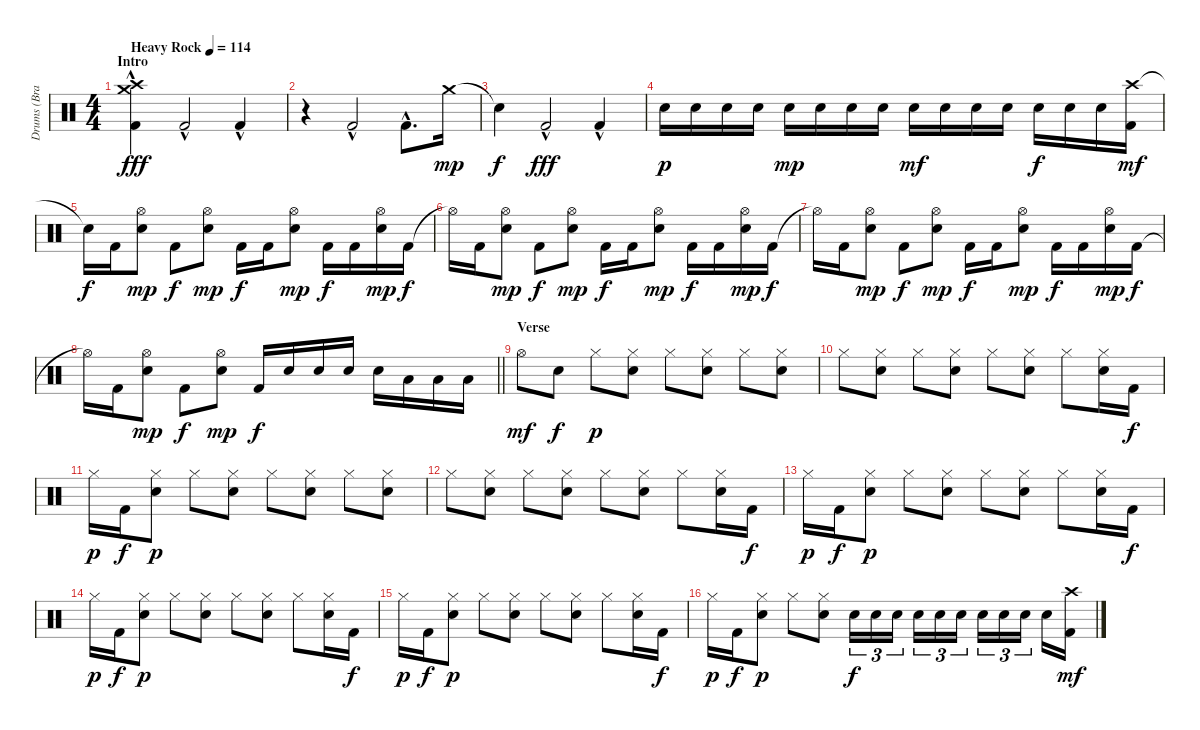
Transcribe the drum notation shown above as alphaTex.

\track ("Drums (Brandon Saller)" "Drums (Bra") {instrument percussion}
\staff {score}
\articulation defaults
\ts (4 4)
\section ("" "Intro")
\tempo (114 "Heavy Rock")
\clef neutral
\ks c
("Crash high (hit)" "Crash medium (hit)" "Kick (hit) 2"{hac}).4{dy fff} "Kick (hit) 2"{hac}.2 "Kick (hit) 2"{hac}.4 |
r.4 "Kick (hit) 2"{hac}.2 "Kick (hit) 2"{hac}.8{d} "Crash medium (hit)".16{dy mp} |
"Snare (hit)"{t}.4{dy f} "Kick (hit) 2"{hac}.2{dy fff} "Kick (hit) 2"{hac}.4 |
"Electric Snare (hit)".16{dy p} "Electric Snare (hit)".16 "Electric Snare (hit)".16 "Electric Snare (hit)".16 "Electric Snare (hit)".16{dy mp} "Electric Snare (hit)".16 "Electric Snare (hit)".16 "Electric Snare (hit)".16 "Electric Snare (hit)".16{dy mf} "Electric Snare (hit)".16 "Electric Snare (hit)".16 "Electric Snare (hit)".16 "Electric Snare (hit)".16{dy f} "Electric Snare (hit)".16 "Electric Snare (hit)".16 ("Crash high (hit)" "Kick (hit) 2").16{dy mf} |
"Snare (hit)"{t}.16{dy f} "Kick (hit) 2".16 ("Hi-Hat (open)" "Electric Snare (hit)").8{dy mp} "Kick (hit) 2".8{dy f} ("Hi-Hat (open)" "Electric Snare (hit)").8{dy mp} "Kick (hit) 2".16{dy f} "Kick (hit) 2".16 ("Hi-Hat (open)" "Electric Snare (hit)").8{dy mp} "Kick (hit) 2".16{dy f} "Kick (hit) 2".16 ("Hi-Hat (open)" "Electric Snare (hit)").16{dy mp} "Kick (hit) 2".16{dy f} |
"Hi-Hat (open)"{t}.16 "Kick (hit) 2".16 ("Hi-Hat (open)" "Electric Snare (hit)").8{dy mp} "Kick (hit) 2".8{dy f} ("Hi-Hat (open)" "Electric Snare (hit)").8{dy mp} "Kick (hit) 2".16{dy f} "Kick (hit) 2".16 ("Hi-Hat (open)" "Electric Snare (hit)").8{dy mp} "Kick (hit) 2".16{dy f} "Kick (hit) 2".16 ("Hi-Hat (open)" "Electric Snare (hit)").16{dy mp} "Kick (hit) 2".16{dy f} |
"Hi-Hat (open)"{t}.16 "Kick (hit) 2".16 ("Hi-Hat (open)" "Electric Snare (hit)").8{dy mp} "Kick (hit) 2".8{dy f} ("Hi-Hat (open)" "Electric Snare (hit)").8{dy mp} "Kick (hit) 2".16{dy f} "Kick (hit) 2".16 ("Hi-Hat (open)" "Electric Snare (hit)").8{dy mp} "Kick (hit) 2".16{dy f} "Kick (hit) 2".16 ("Hi-Hat (open)" "Electric Snare (hit)").16{dy mp} "Kick (hit) 2".16{dy f} |
\barLineRight lightlight "Hi-Hat (open)"{t}.16 "Kick (hit) 2".16
("Hi-Hat (open)" "Electric Snare (hit)").8{dy mp} "Kick (hit) 2".8{dy f} ("Hi-Hat (open)" "Electric Snare (hit)").8{dy mp} "Kick (hit) 2".16{dy f} "Electric Snare (hit)".16 "Electric Snare (hit)".16 "Electric Snare (hit)".16 "Electric Snare (hit)".16 "Low Tom (hit)".16 "Low Tom (hit)".16 "Low Tom (hit)".16 |
\section ("" "Verse")
"Hi-Hat (open)".8{dy mf} "Electric Snare (hit)".8{dy f} "Hi-Hat (closed)".8{dy p} ("Hi-Hat (closed)" "Electric Snare (hit)").8 "Hi-Hat (closed)".8 ("Hi-Hat (closed)" "Electric Snare (hit)").8 "Hi-Hat (closed)".8 ("Hi-Hat (closed)" "Electric Snare (hit)").8 |
"Hi-Hat (closed)".8 ("Hi-Hat (closed)" "Electric Snare (hit)").8 "Hi-Hat (closed)".8 ("Hi-Hat (closed)" "Electric Snare (hit)").8 "Hi-Hat (closed)".8 ("Hi-Hat (closed)" "Electric Snare (hit)").8 "Hi-Hat (closed)".8 ("Hi-Hat (closed)" "Electric Snare (hit)").16 "Kick (hit) 2".16{dy f} |
"Hi-Hat (closed)".16{dy p} "Kick (hit) 2".16{dy f} ("Hi-Hat (closed)" "Electric Snare (hit)").8{dy p} "Hi-Hat (closed)".8 ("Hi-Hat (closed)" "Electric Snare (hit)").8 "Hi-Hat (closed)".8 ("Hi-Hat (closed)" "Electric Snare (hit)").8 "Hi-Hat (closed)".8 ("Hi-Hat (closed)" "Electric Snare (hit)").8 |
"Hi-Hat (closed)".8 ("Hi-Hat (closed)" "Electric Snare (hit)").8 "Hi-Hat (closed)".8 ("Hi-Hat (closed)" "Electric Snare (hit)").8 "Hi-Hat (closed)".8 ("Hi-Hat (closed)" "Electric Snare (hit)").8 "Hi-Hat (closed)".8 ("Hi-Hat (closed)" "Electric Snare (hit)").16 "Kick (hit) 2".16{dy f} |
"Hi-Hat (closed)".16{dy p} "Kick (hit) 2".16{dy f} ("Hi-Hat (closed)" "Electric Snare (hit)").8{dy p} "Hi-Hat (closed)".8 ("Hi-Hat (closed)" "Electric Snare (hit)").8 "Hi-Hat (closed)".8 ("Hi-Hat (closed)" "Electric Snare (hit)").8 "Hi-Hat (closed)".8 ("Hi-Hat (closed)" "Electric Snare (hit)").16 "Kick (hit) 2".16{dy f} |
"Hi-Hat (closed)".16{dy p} "Kick (hit) 2".16{dy f} ("Hi-Hat (closed)" "Electric Snare (hit)").8{dy p} "Hi-Hat (closed)".8 ("Hi-Hat (closed)" "Electric Snare (hit)").8 "Hi-Hat (closed)".8 ("Hi-Hat (closed)" "Electric Snare (hit)").8 "Hi-Hat (closed)".8 ("Hi-Hat (closed)" "Electric Snare (hit)").16 "Kick (hit) 2".16{dy f} |
"Hi-Hat (closed)".16{dy p} "Kick (hit) 2".16{dy f} ("Hi-Hat (closed)" "Electric Snare (hit)").8{dy p} "Hi-Hat (closed)".8 ("Hi-Hat (closed)" "Electric Snare (hit)").8 "Hi-Hat (closed)".8 ("Hi-Hat (closed)" "Electric Snare (hit)").8 "Hi-Hat (closed)".8 ("Hi-Hat (closed)" "Electric Snare (hit)").16 "Kick (hit) 2".16{dy f} |
"Hi-Hat (closed)".16{dy p} "Kick (hit) 2".16{dy f} ("Hi-Hat (closed)" "Electric Snare (hit)").8{dy p} "Hi-Hat (closed)".8 ("Hi-Hat (closed)" "Electric Snare (hit)").8 "Electric Snare (hit)".16{tu (3 2) dy f} "Electric Snare (hit)".16{tu (3 2)} "Electric Snare (hit)".16{tu (3 2) beam splitsecondary} "Electric Snare (hit)".16{tu (3 2)} "Electric Snare (hit)".16{tu (3 2)} "Electric Snare (hit)".16{tu (3 2)} "Electric Snare (hit)".16{tu (3 2)} "Electric Snare (hit)".16{tu (3 2)} "Electric Snare (hit)".16{tu (3 2) beam splitsecondary} "Electric Snare (hit)".16 ("Crash high (hit)" "Kick (hit) 2").16{dy mf}
